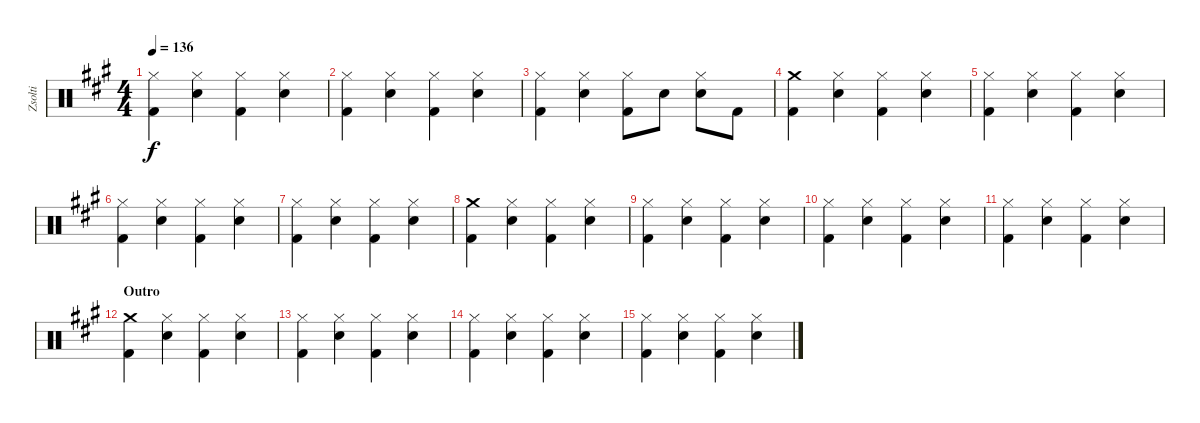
\track ("Zsolti" "Zsolti") {instrument percussion}
\staff {score}
\articulation defaults
\ts (4 4)
\tempo 136
\clef neutral
\ks f#minor
("Hi-Hat (closed)" "Kick (hit) 2").4{dy f} ("Hi-Hat (closed)" "Snare (hit) 2").4 ("Hi-Hat (closed)" "Kick (hit) 2").4 ("Hi-Hat (closed)" "Snare (hit) 2").4 |
("Hi-Hat (closed)" "Kick (hit) 2").4 ("Hi-Hat (closed)" "Snare (hit) 2").4 ("Hi-Hat (closed)" "Kick (hit) 2").4 ("Hi-Hat (closed)" "Snare (hit) 2").4 |
("Hi-Hat (closed)" "Kick (hit) 2").4 ("Hi-Hat (closed)" "Snare (hit) 2").4 ("Hi-Hat (closed)" "Kick (hit) 2").8 "Snare (hit) 2".8 ("Hi-Hat (closed)" "Snare (hit) 2").8 "Kick (hit) 2".8 |
("Crash medium (hit)" "Kick (hit) 2").4 ("Hi-Hat (closed)" "Snare (hit) 2").4 ("Hi-Hat (closed)" "Kick (hit) 2").4 ("Hi-Hat (closed)" "Snare (hit) 2").4 |
("Hi-Hat (closed)" "Kick (hit) 2").4 ("Hi-Hat (closed)" "Snare (hit) 2").4 ("Hi-Hat (closed)" "Kick (hit) 2").4 ("Hi-Hat (closed)" "Snare (hit) 2").4 |
("Hi-Hat (closed)" "Kick (hit) 2").4 ("Hi-Hat (closed)" "Snare (hit) 2").4 ("Hi-Hat (closed)" "Kick (hit) 2").4 ("Hi-Hat (closed)" "Snare (hit) 2").4 |
("Hi-Hat (closed)" "Kick (hit) 2").4 ("Hi-Hat (closed)" "Snare (hit) 2").4 ("Hi-Hat (closed)" "Kick (hit) 2").4 ("Hi-Hat (closed)" "Snare (hit) 2").4 |
("Crash medium (hit)" "Kick (hit) 2").4 ("Hi-Hat (closed)" "Snare (hit) 2").4 ("Hi-Hat (closed)" "Kick (hit) 2").4 ("Hi-Hat (closed)" "Snare (hit) 2").4 |
("Hi-Hat (closed)" "Kick (hit) 2").4 ("Hi-Hat (closed)" "Snare (hit) 2").4 ("Hi-Hat (closed)" "Kick (hit) 2").4 ("Hi-Hat (closed)" "Snare (hit) 2").4 |
("Hi-Hat (closed)" "Kick (hit) 2").4 ("Hi-Hat (closed)" "Snare (hit) 2").4 ("Hi-Hat (closed)" "Kick (hit) 2").4 ("Hi-Hat (closed)" "Snare (hit) 2").4 |
("Hi-Hat (closed)" "Kick (hit) 2").4 ("Hi-Hat (closed)" "Snare (hit) 2").4 ("Hi-Hat (closed)" "Kick (hit) 2").4 ("Hi-Hat (closed)" "Snare (hit) 2").4 |
\section ("" "Outro")
("Crash medium (hit)" "Kick (hit) 2").4 ("Hi-Hat (closed)" "Snare (hit) 2").4 ("Hi-Hat (closed)" "Kick (hit) 2").4 ("Hi-Hat (closed)" "Snare (hit) 2").4 |
("Hi-Hat (closed)" "Kick (hit) 2").4 ("Hi-Hat (closed)" "Snare (hit) 2").4 ("Hi-Hat (closed)" "Kick (hit) 2").4 ("Hi-Hat (closed)" "Snare (hit) 2").4 |
("Hi-Hat (closed)" "Kick (hit) 2").4 ("Hi-Hat (closed)" "Snare (hit) 2").4 ("Hi-Hat (closed)" "Kick (hit) 2").4 ("Hi-Hat (closed)" "Snare (hit) 2").4 |
("Hi-Hat (closed)" "Kick (hit) 2").4 ("Hi-Hat (closed)" "Snare (hit) 2").4 ("Hi-Hat (closed)" "Kick (hit) 2").4 ("Hi-Hat (closed)" "Snare (hit) 2").4
